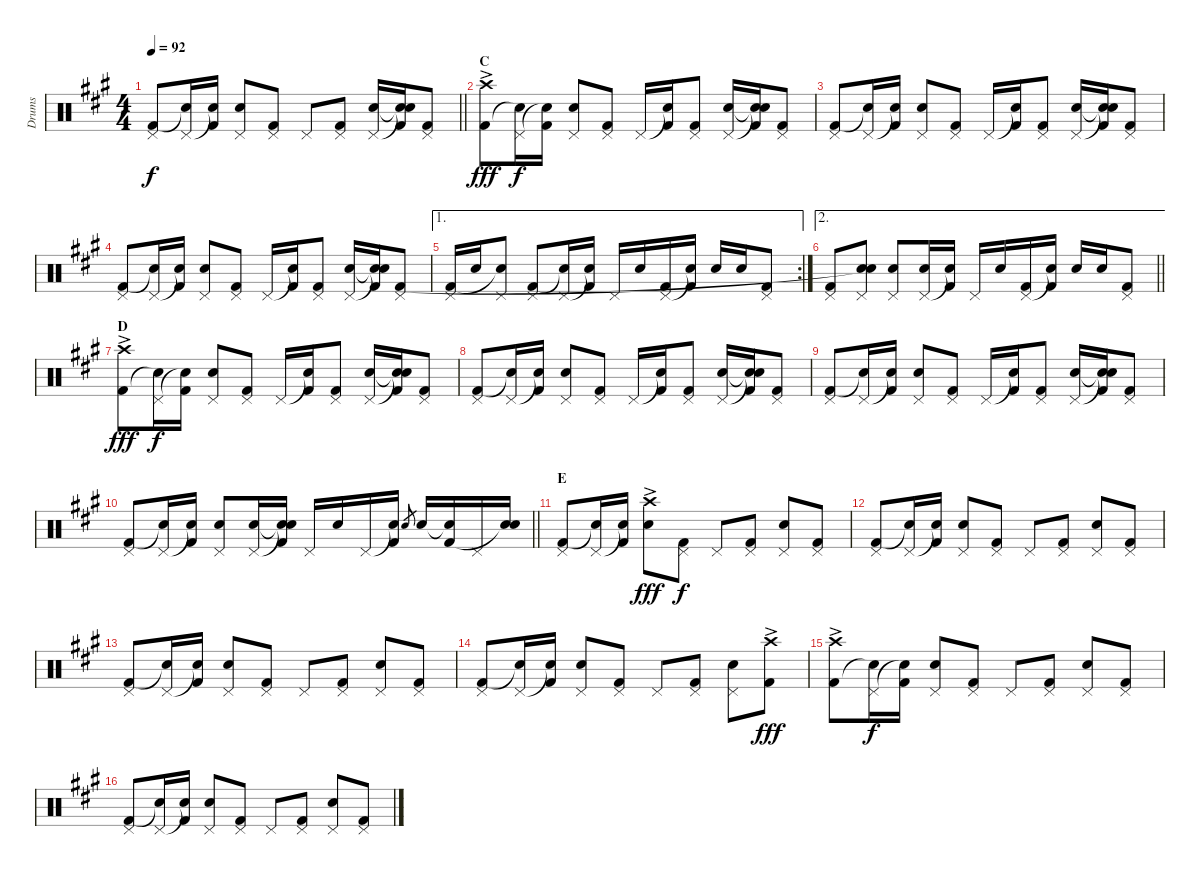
\track ("Drums" "Drums") {instrument percussion}
\staff {score}
\articulation defaults
\ts (4 4)
\tempo 92
\clef neutral
\barLineRight lightlight
\ks a
("Pedal Hi-Hat (hit)" "Kick (hit) 2").8{dy f} ("Pedal Hi-Hat (hit)" "Snare (hit)"{t}).16 ("Snare (hit)"{t} "Kick (hit) 2").16 ("Pedal Hi-Hat (hit)" "Electric Snare (hit)").8 ("Pedal Hi-Hat (hit)" "Kick (hit) 2").8 "Pedal Hi-Hat (hit)".8 ("Pedal Hi-Hat (hit)" "Kick (hit) 2").8 ("Pedal Hi-Hat (hit)" "Electric Snare (hit)").16 ("Snare (hit)"{t} "Snare (hit)"{t} "Kick (hit) 2").16 ("Pedal Hi-Hat (hit)" "Kick (hit) 2").8 |
\section ("" "C")
("Crash high (hit)"{ac} "Kick (hit) 2").8{dy fff} ("Pedal Hi-Hat (hit)" "Snare (hit)"{t}).16{dy f} ("Snare (hit)"{t} "Kick (hit) 2").16 ("Pedal Hi-Hat (hit)" "Electric Snare (hit)").8 ("Pedal Hi-Hat (hit)" "Kick (hit) 2").8 "Pedal Hi-Hat (hit)".16 ("Snare (hit)"{t} "Kick (hit) 2").16 ("Pedal Hi-Hat (hit)" "Kick (hit) 2").8 ("Pedal Hi-Hat (hit)" "Electric Snare (hit)").16 ("Snare (hit)"{t} "Snare (hit)"{t} "Kick (hit) 2").16 ("Pedal Hi-Hat (hit)" "Kick (hit) 2").8 |
("Pedal Hi-Hat (hit)" "Kick (hit) 2").8 ("Pedal Hi-Hat (hit)" "Snare (hit)"{t}).16 ("Snare (hit)"{t} "Kick (hit) 2").16 ("Pedal Hi-Hat (hit)" "Electric Snare (hit)").8 ("Pedal Hi-Hat (hit)" "Kick (hit) 2").8 "Pedal Hi-Hat (hit)".16 ("Snare (hit)"{t} "Kick (hit) 2").16 ("Pedal Hi-Hat (hit)" "Kick (hit) 2").8 ("Pedal Hi-Hat (hit)" "Electric Snare (hit)").16 ("Snare (hit)"{t} "Snare (hit)"{t} "Kick (hit) 2").16 ("Pedal Hi-Hat (hit)" "Kick (hit) 2").8 |
("Pedal Hi-Hat (hit)" "Kick (hit) 2").8 ("Pedal Hi-Hat (hit)" "Snare (hit)"{t}).16 ("Snare (hit)"{t} "Kick (hit) 2").16 ("Pedal Hi-Hat (hit)" "Electric Snare (hit)").8 ("Pedal Hi-Hat (hit)" "Kick (hit) 2").8 "Pedal Hi-Hat (hit)".16 ("Snare (hit)"{t} "Kick (hit) 2").16 ("Pedal Hi-Hat (hit)" "Kick (hit) 2").8 ("Pedal Hi-Hat (hit)" "Electric Snare (hit)").16 ("Snare (hit)"{t} "Snare (hit)"{t} "Kick (hit) 2").16 ("Pedal Hi-Hat (hit)" "Kick (hit) 2").8 |
\ae 1
\rc 2
("Pedal Hi-Hat (hit)" "Kick (hit) 2").16 "Electric Snare (hit)".16 ("Pedal Hi-Hat (hit)" "Snare (hit)"{t}).8 ("Pedal Hi-Hat (hit)" "Kick (hit) 2").8 ("Pedal Hi-Hat (hit)" "Snare (hit)"{t}).16 ("Snare (hit)"{t} "Kick (hit) 2").16 "Pedal Hi-Hat (hit)".16 "Electric Snare (hit)".16 ("Pedal Hi-Hat (hit)" "Kick (hit) 2").16 ("Snare (hit)"{t} "Kick (hit) 2").16 "Electric Snare (hit)".16 "Electric Snare (hit)".16 ("Pedal Hi-Hat (hit)" "Kick (hit) 2").8 |
\ae 2
\barLineRight lightlight
("Pedal Hi-Hat (hit)" "Kick (hit) 2").8 ("Pedal Hi-Hat (hit)" "Electric Snare (hit)" "Snare (hit)"{t}).8 ("Pedal Hi-Hat (hit)" "Electric Snare (hit)").8 ("Pedal Hi-Hat (hit)" "Electric Snare (hit)").16 ("Snare (hit)"{t} "Kick (hit) 2").16 "Pedal Hi-Hat (hit)".16 "Electric Snare (hit)".16 ("Pedal Hi-Hat (hit)" "Kick (hit) 2").16 ("Snare (hit)"{t} "Kick (hit) 2").16 "Electric Snare (hit)".16 "Electric Snare (hit)".16 ("Pedal Hi-Hat (hit)" "Kick (hit) 2").8 |
\section ("" "D")
("Crash high (hit)"{ac} "Kick (hit) 2").8{dy fff} ("Pedal Hi-Hat (hit)" "Snare (hit)"{t}).16{dy f} ("Snare (hit)"{t} "Kick (hit) 2").16 ("Pedal Hi-Hat (hit)" "Electric Snare (hit)").8 ("Pedal Hi-Hat (hit)" "Kick (hit) 2").8 "Pedal Hi-Hat (hit)".16 ("Snare (hit)"{t} "Kick (hit) 2").16 ("Pedal Hi-Hat (hit)" "Kick (hit) 2").8 ("Pedal Hi-Hat (hit)" "Electric Snare (hit)").16 ("Snare (hit)"{t} "Snare (hit)"{t} "Kick (hit) 2").16 ("Pedal Hi-Hat (hit)" "Kick (hit) 2").8 |
("Pedal Hi-Hat (hit)" "Kick (hit) 2").8 ("Pedal Hi-Hat (hit)" "Snare (hit)"{t}).16 ("Snare (hit)"{t} "Kick (hit) 2").16 ("Pedal Hi-Hat (hit)" "Electric Snare (hit)").8 ("Pedal Hi-Hat (hit)" "Kick (hit) 2").8 "Pedal Hi-Hat (hit)".16 ("Snare (hit)"{t} "Kick (hit) 2").16 ("Pedal Hi-Hat (hit)" "Kick (hit) 2").8 ("Pedal Hi-Hat (hit)" "Electric Snare (hit)").16 ("Snare (hit)"{t} "Snare (hit)"{t} "Kick (hit) 2").16 ("Pedal Hi-Hat (hit)" "Kick (hit) 2").8 |
("Pedal Hi-Hat (hit)" "Kick (hit) 2").8 ("Pedal Hi-Hat (hit)" "Snare (hit)"{t}).16 ("Snare (hit)"{t} "Kick (hit) 2").16 ("Pedal Hi-Hat (hit)" "Electric Snare (hit)").8 ("Pedal Hi-Hat (hit)" "Kick (hit) 2").8 "Pedal Hi-Hat (hit)".16 ("Snare (hit)"{t} "Kick (hit) 2").16 ("Pedal Hi-Hat (hit)" "Kick (hit) 2").8 ("Pedal Hi-Hat (hit)" "Electric Snare (hit)").16 ("Snare (hit)"{t} "Snare (hit)"{t} "Kick (hit) 2").16 ("Pedal Hi-Hat (hit)" "Kick (hit) 2").8 |
\barLineRight lightlight
("Pedal Hi-Hat (hit)" "Kick (hit) 2").8 ("Pedal Hi-Hat (hit)" "Snare (hit)"{t}).16 ("Snare (hit)"{t} "Kick (hit) 2").16 ("Pedal Hi-Hat (hit)" "Electric Snare (hit)").8 ("Pedal Hi-Hat (hit)" "Electric Snare (hit)").16 ("Snare (hit)"{t} "Snare (hit)"{t} "Kick (hit) 2").16 "Pedal Hi-Hat (hit)".16 "Electric Snare (hit)".16 "Pedal Hi-Hat (hit)".16 ("Snare (hit)"{t} "Kick (hit) 2").16 "Electric Snare (hit)".8{gr} "Electric Snare (hit)".16 ("Snare (hit)"{t} "Kick (hit) 2").16 "Pedal Hi-Hat (hit)".16 ("Electric Snare (hit)" "Snare (hit)"{t}).16 |
\section ("" "E")
("Pedal Hi-Hat (hit)" "Kick (hit) 2").8 ("Pedal Hi-Hat (hit)" "Snare (hit)"{t}).16 ("Snare (hit)"{t} "Kick (hit) 2").16 ("Crash high (hit)"{ac} "Electric Snare (hit)").8{dy fff} ("Pedal Hi-Hat (hit)" "Kick (hit) 2").8{dy f} "Pedal Hi-Hat (hit)".8 ("Pedal Hi-Hat (hit)" "Kick (hit) 2").8 ("Pedal Hi-Hat (hit)" "Electric Snare (hit)").8 ("Pedal Hi-Hat (hit)" "Kick (hit) 2").8 |
("Pedal Hi-Hat (hit)" "Kick (hit) 2").8 ("Pedal Hi-Hat (hit)" "Snare (hit)"{t}).16 ("Snare (hit)"{t} "Kick (hit) 2").16 ("Pedal Hi-Hat (hit)" "Electric Snare (hit)").8 ("Pedal Hi-Hat (hit)" "Kick (hit) 2").8 "Pedal Hi-Hat (hit)".8 ("Pedal Hi-Hat (hit)" "Kick (hit) 2").8 ("Pedal Hi-Hat (hit)" "Electric Snare (hit)").8 ("Pedal Hi-Hat (hit)" "Kick (hit) 2").8 |
("Pedal Hi-Hat (hit)" "Kick (hit) 2").8 ("Pedal Hi-Hat (hit)" "Snare (hit)"{t}).16 ("Snare (hit)"{t} "Kick (hit) 2").16 ("Pedal Hi-Hat (hit)" "Electric Snare (hit)").8 ("Pedal Hi-Hat (hit)" "Kick (hit) 2").8 "Pedal Hi-Hat (hit)".8 ("Pedal Hi-Hat (hit)" "Kick (hit) 2").8 ("Pedal Hi-Hat (hit)" "Electric Snare (hit)").8 ("Pedal Hi-Hat (hit)" "Kick (hit) 2").8 |
("Pedal Hi-Hat (hit)" "Kick (hit) 2").8 ("Pedal Hi-Hat (hit)" "Snare (hit)"{t}).16 ("Snare (hit)"{t} "Kick (hit) 2").16 ("Pedal Hi-Hat (hit)" "Electric Snare (hit)").8 ("Pedal Hi-Hat (hit)" "Kick (hit) 2").8 "Pedal Hi-Hat (hit)".8 ("Pedal Hi-Hat (hit)" "Kick (hit) 2").8 ("Pedal Hi-Hat (hit)" "Electric Snare (hit)").8 ("Crash high (hit)"{ac} "Kick (hit) 2").8{dy fff} |
("Crash high (hit)"{ac} "Kick (hit) 2").8 ("Pedal Hi-Hat (hit)" "Snare (hit)"{t}).16{dy f} ("Snare (hit)"{t} "Kick (hit) 2").16 ("Pedal Hi-Hat (hit)" "Electric Snare (hit)").8 ("Pedal Hi-Hat (hit)" "Kick (hit) 2").8 "Pedal Hi-Hat (hit)".8 ("Pedal Hi-Hat (hit)" "Kick (hit) 2").8 ("Pedal Hi-Hat (hit)" "Electric Snare (hit)").8 ("Pedal Hi-Hat (hit)" "Kick (hit) 2").8 |
("Pedal Hi-Hat (hit)" "Kick (hit) 2").8 ("Pedal Hi-Hat (hit)" "Snare (hit)"{t}).16 ("Snare (hit)"{t} "Kick (hit) 2").16 ("Pedal Hi-Hat (hit)" "Electric Snare (hit)").8 ("Pedal Hi-Hat (hit)" "Kick (hit) 2").8 "Pedal Hi-Hat (hit)".8 ("Pedal Hi-Hat (hit)" "Kick (hit) 2").8 ("Pedal Hi-Hat (hit)" "Electric Snare (hit)").8 ("Pedal Hi-Hat (hit)" "Kick (hit) 2").8
